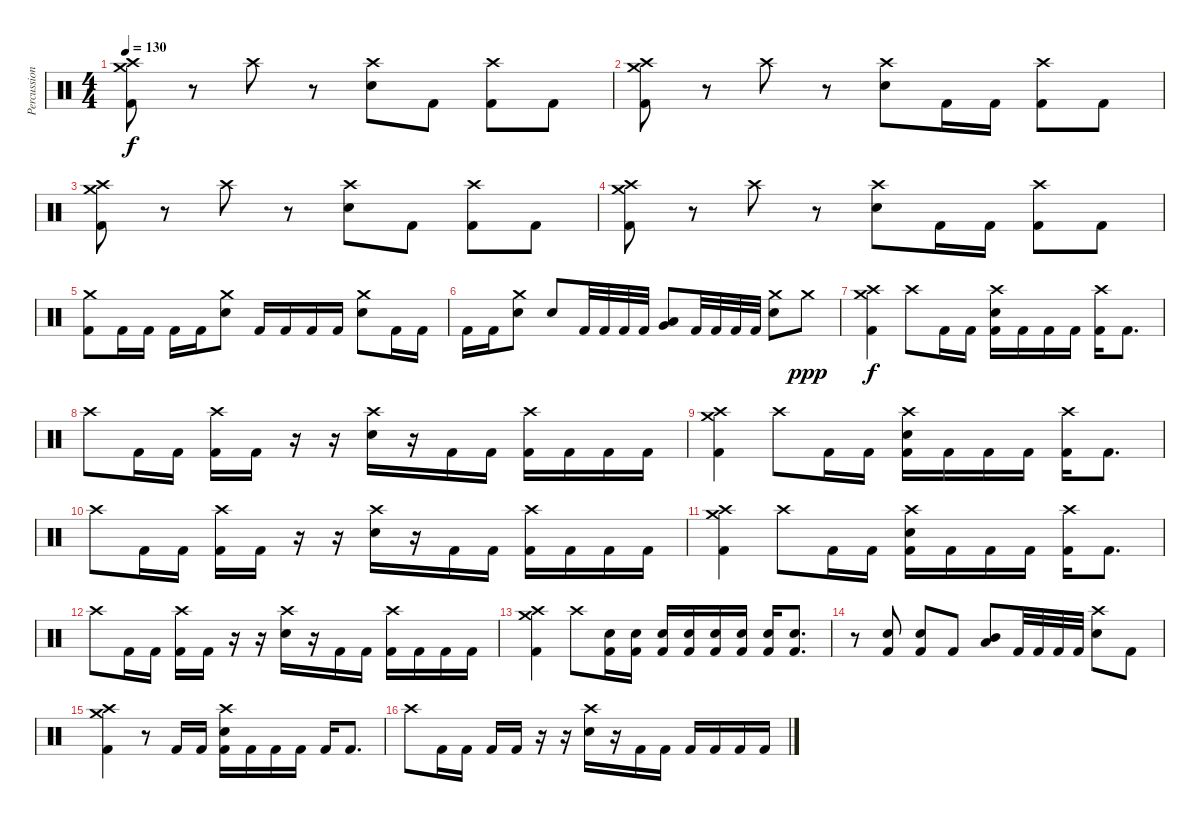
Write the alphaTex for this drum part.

\track ("Percussion" "Percussion") {instrument percussion}
\staff {score}
\articulation defaults
\ts (4 4)
\tempo 130
\clef neutral
\ks c
("Crash medium (hit)" "Crash high (hit)" "Kick (hit) 2").8{dy f} r.8 "Crash high (hit)".8 r.8 ("Crash high (hit)" "Electric Snare (hit)").8 "Kick (hit) 2".8 ("Crash high (hit)" "Kick (hit) 2").8 "Kick (hit) 2".8 |
("Crash medium (hit)" "Crash high (hit)" "Kick (hit) 2").8 r.8 "Crash high (hit)".8 r.8 ("Crash high (hit)" "Electric Snare (hit)").8 "Kick (hit) 2".16 "Kick (hit) 2".16 ("Crash high (hit)" "Kick (hit) 2").8 "Kick (hit) 2".8 |
("Crash medium (hit)" "Crash high (hit)" "Kick (hit) 2").8 r.8 "Crash high (hit)".8 r.8 ("Crash high (hit)" "Electric Snare (hit)").8 "Kick (hit) 2".8 ("Crash high (hit)" "Kick (hit) 2").8 "Kick (hit) 2".8 |
("Crash medium (hit)" "Crash high (hit)" "Kick (hit) 2").8 r.8 "Crash high (hit)".8 r.8 ("Crash high (hit)" "Electric Snare (hit)").8 "Kick (hit) 2".16 "Kick (hit) 2".16 ("Crash high (hit)" "Kick (hit) 2").8 "Kick (hit) 2".8 |
("Crash medium (hit)" "Kick (hit) 2").8 "Kick (hit) 2".16 "Kick (hit) 2".16 "Kick (hit) 2".16 "Kick (hit) 2".16 ("Crash medium (hit)" "Electric Snare (hit)").8 "Kick (hit) 2".16 "Kick (hit) 2".16 "Kick (hit) 2".16 "Kick (hit) 2".16 ("Crash medium (hit)" "Electric Snare (hit)").8 "Kick (hit) 2".16 "Kick (hit) 2".16 |
"Kick (hit) 2".16 "Kick (hit) 2".16 ("Crash medium (hit)" "Electric Snare (hit)").8 "Electric Snare (hit)".8 "Kick (hit) 2".32 "Kick (hit) 2".32 "Kick (hit) 2".32 "Kick (hit) 2".32 ("Very Low Tom (hit)" "Low Floor Tom (hit)").8 "Kick (hit) 2".32 "Kick (hit) 2".32 "Kick (hit) 2".32 "Kick (hit) 2".32 ("Crash medium (hit)" "Electric Snare (hit)").8 "Crash medium (hit)".8{dy ppp} |
("Crash medium (hit)" "Crash high (hit)" "Kick (hit) 2").4{dy f} "Crash high (hit)".8 "Kick (hit) 2".16 "Kick (hit) 2".16 ("Crash high (hit)" "Electric Snare (hit)" "Kick (hit) 2").16 "Kick (hit) 2".16 "Kick (hit) 2".16 "Kick (hit) 2".16 ("Crash high (hit)" "Kick (hit) 2").16 "Kick (hit) 2".8{d} |
"Crash high (hit)".8 "Kick (hit) 2".16 "Kick (hit) 2".16 ("Crash high (hit)" "Kick (hit) 2").16 "Kick (hit) 2".16 r.16 r.16 ("Crash high (hit)" "Electric Snare (hit)").16 r.16 "Kick (hit) 2".16 "Kick (hit) 2".16 ("Crash high (hit)" "Kick (hit) 2").16 "Kick (hit) 2".16 "Kick (hit) 2".16 "Kick (hit) 2".16 |
("Crash medium (hit)" "Crash high (hit)" "Kick (hit) 2").4 "Crash high (hit)".8 "Kick (hit) 2".16 "Kick (hit) 2".16 ("Crash high (hit)" "Electric Snare (hit)" "Kick (hit) 2").16 "Kick (hit) 2".16 "Kick (hit) 2".16 "Kick (hit) 2".16 ("Crash high (hit)" "Kick (hit) 2").16 "Kick (hit) 2".8{d} |
"Crash high (hit)".8 "Kick (hit) 2".16 "Kick (hit) 2".16 ("Crash high (hit)" "Kick (hit) 2").16 "Kick (hit) 2".16 r.16 r.16 ("Crash high (hit)" "Electric Snare (hit)").16 r.16 "Kick (hit) 2".16 "Kick (hit) 2".16 ("Crash high (hit)" "Kick (hit) 2").16 "Kick (hit) 2".16 "Kick (hit) 2".16 "Kick (hit) 2".16 |
("Crash medium (hit)" "Crash high (hit)" "Kick (hit) 2").4 "Crash high (hit)".8 "Kick (hit) 2".16 "Kick (hit) 2".16 ("Crash high (hit)" "Electric Snare (hit)" "Kick (hit) 2").16 "Kick (hit) 2".16 "Kick (hit) 2".16 "Kick (hit) 2".16 ("Crash high (hit)" "Kick (hit) 2").16 "Kick (hit) 2".8{d} |
"Crash high (hit)".8 "Kick (hit) 2".16 "Kick (hit) 2".16 ("Crash high (hit)" "Kick (hit) 2").16 "Kick (hit) 2".16 r.16 r.16 ("Crash high (hit)" "Electric Snare (hit)").16 r.16 "Kick (hit) 2".16 "Kick (hit) 2".16 ("Crash high (hit)" "Kick (hit) 2").16 "Kick (hit) 2".16 "Kick (hit) 2".16 "Kick (hit) 2".16 |
("Crash medium (hit)" "Crash high (hit)" "Kick (hit) 2").4 "Crash high (hit)".8 ("Electric Snare (hit)" "Kick (hit) 2").16 ("Electric Snare (hit)" "Kick (hit) 2").16 ("Electric Snare (hit)" "Kick (hit) 2").16 ("Electric Snare (hit)" "Kick (hit) 2").16 ("Electric Snare (hit)" "Kick (hit) 2").16 ("Electric Snare (hit)" "Kick (hit) 2").16 ("Electric Snare (hit)" "Kick (hit) 2").16 ("Electric Snare (hit)" "Kick (hit) 2").8{d} |
r.8 ("Electric Snare (hit)" "Kick (hit) 2").8 ("Electric Snare (hit)" "Kick (hit) 2").8 "Kick (hit) 2".8 ("Low Tom (hit)" "Mid Tom (hit)").8 "Kick (hit) 2".32 "Kick (hit) 2".32 "Kick (hit) 2".32 "Kick (hit) 2".32 ("Crash high (hit)" "Electric Snare (hit)").8 "Kick (hit) 2".8 |
("Crash medium (hit)" "Crash high (hit)" "Kick (hit) 2").4 r.8 "Kick (hit) 2".16 "Kick (hit) 2".16 ("Crash high (hit)" "Electric Snare (hit)" "Kick (hit) 2").16 "Kick (hit) 2".16 "Kick (hit) 2".16 "Kick (hit) 2".16 "Kick (hit) 2".16 "Kick (hit) 2".8{d} |
"Crash high (hit)".8 "Kick (hit) 2".16 "Kick (hit) 2".16 "Kick (hit) 2".16 "Kick (hit) 2".16 r.16 r.16 ("Crash high (hit)" "Electric Snare (hit)").16 r.16 "Kick (hit) 2".16 "Kick (hit) 2".16 "Kick (hit) 2".16 "Kick (hit) 2".16 "Kick (hit) 2".16 "Kick (hit) 2".16
